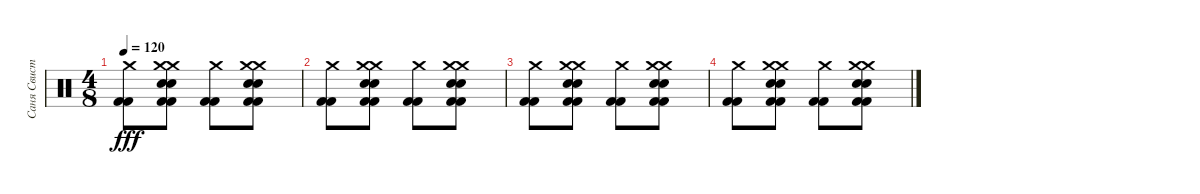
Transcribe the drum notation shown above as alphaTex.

\track ("Саня Свистун - Drums" "Саня Свист") {instrument percussion}
\staff {score}
\articulation defaults
\ts (4 8)
\tempo 120
\clef neutral
\ks c
("Kick (hit) 2" "Crash medium (hit)" "Kick (hit) 2").8{dy fff} ("Kick (hit) 2" "Crash medium (hit)" "Electric Snare (hit)" "Electric Snare (hit)" "Crash medium (hit)" "Kick (hit) 2").8 ("Kick (hit) 2" "Crash medium (hit)" "Kick (hit) 2").8 ("Kick (hit) 2" "Crash medium (hit)" "Crash medium (hit)" "Electric Snare (hit)" "Electric Snare (hit)" "Kick (hit) 2").8 |
("Kick (hit) 2" "Crash medium (hit)" "Kick (hit) 2").8 ("Kick (hit) 2" "Crash medium (hit)" "Electric Snare (hit)" "Electric Snare (hit)" "Crash medium (hit)" "Kick (hit) 2").8 ("Kick (hit) 2" "Crash medium (hit)" "Kick (hit) 2").8 ("Kick (hit) 2" "Crash medium (hit)" "Crash medium (hit)" "Electric Snare (hit)" "Electric Snare (hit)" "Kick (hit) 2").8 |
("Kick (hit) 2" "Crash medium (hit)" "Kick (hit) 2").8 ("Kick (hit) 2" "Crash medium (hit)" "Electric Snare (hit)" "Electric Snare (hit)" "Crash medium (hit)" "Kick (hit) 2").8 ("Kick (hit) 2" "Crash medium (hit)" "Kick (hit) 2").8 ("Kick (hit) 2" "Crash medium (hit)" "Crash medium (hit)" "Electric Snare (hit)" "Electric Snare (hit)" "Kick (hit) 2").8 |
("Kick (hit) 2" "Crash medium (hit)" "Kick (hit) 2").8 ("Kick (hit) 2" "Crash medium (hit)" "Electric Snare (hit)" "Electric Snare (hit)" "Crash medium (hit)" "Kick (hit) 2").8 ("Kick (hit) 2" "Crash medium (hit)" "Kick (hit) 2").8 ("Kick (hit) 2" "Crash medium (hit)" "Crash medium (hit)" "Electric Snare (hit)" "Electric Snare (hit)" "Kick (hit) 2").8
